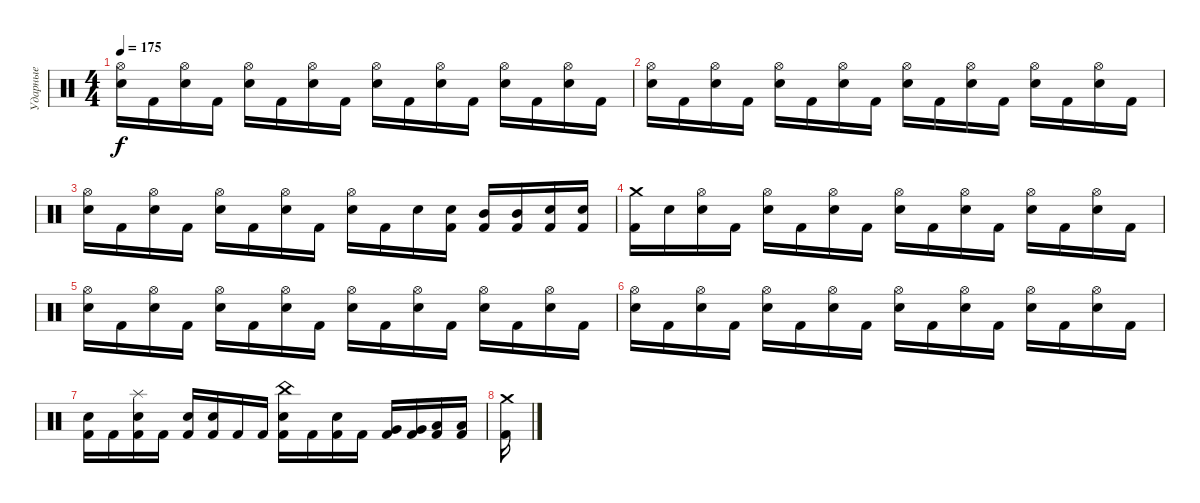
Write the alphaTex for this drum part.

\track ("Ударные" "Ударные") {instrument percussion}
\staff {score}
\articulation defaults
\ts (4 4)
\tempo 175
\clef neutral
\ks c
("Electric Snare (hit)" "Hi-Hat (open)").16{dy f} "Kick (hit) 2".16 ("Electric Snare (hit)" "Hi-Hat (open)").16 "Kick (hit) 2".16 ("Electric Snare (hit)" "Hi-Hat (open)").16 "Kick (hit) 2".16 ("Electric Snare (hit)" "Hi-Hat (open)").16 "Kick (hit) 2".16 ("Electric Snare (hit)" "Hi-Hat (open)").16 "Kick (hit) 2".16 ("Electric Snare (hit)" "Hi-Hat (open)").16 "Kick (hit) 2".16 ("Electric Snare (hit)" "Hi-Hat (open)").16 "Kick (hit) 2".16 ("Electric Snare (hit)" "Hi-Hat (open)").16 "Kick (hit) 2".16 |
("Electric Snare (hit)" "Hi-Hat (open)").16 "Kick (hit) 2".16 ("Electric Snare (hit)" "Hi-Hat (open)").16 "Kick (hit) 2".16 ("Electric Snare (hit)" "Hi-Hat (open)").16 "Kick (hit) 2".16 ("Electric Snare (hit)" "Hi-Hat (open)").16 "Kick (hit) 2".16 ("Electric Snare (hit)" "Hi-Hat (open)").16 "Kick (hit) 2".16 ("Electric Snare (hit)" "Hi-Hat (open)").16 "Kick (hit) 2".16 ("Electric Snare (hit)" "Hi-Hat (open)").16 "Kick (hit) 2".16 ("Electric Snare (hit)" "Hi-Hat (open)").16 "Kick (hit) 2".16 |
("Electric Snare (hit)" "Hi-Hat (open)").16 "Kick (hit) 2".16 ("Electric Snare (hit)" "Hi-Hat (open)").16 "Kick (hit) 2".16 ("Electric Snare (hit)" "Hi-Hat (open)").16 "Kick (hit) 2".16 ("Electric Snare (hit)" "Hi-Hat (open)").16 "Kick (hit) 2".16 ("Electric Snare (hit)" "Hi-Hat (open)").16 "Kick (hit) 2".16 "Electric Snare (hit)".16 ("Electric Snare (hit)" "Kick (hit) 2").16 ("Mid Tom (hit)" "Kick (hit) 2").16 ("Mid Tom (hit)" "Kick (hit) 2").16 ("Electric Snare (hit)" "Kick (hit) 2").16 ("Electric Snare (hit)" "Kick (hit) 2").16 |
("Crash medium (hit)" "Kick (hit) 2").16 "Snare (hit)".16 ("Electric Snare (hit)" "Hi-Hat (open)").16 "Kick (hit) 2".16 ("Electric Snare (hit)" "Hi-Hat (open)").16 "Kick (hit) 2".16 ("Electric Snare (hit)" "Hi-Hat (open)").16 "Kick (hit) 2".16 ("Electric Snare (hit)" "Hi-Hat (open)").16 "Kick (hit) 2".16 ("Electric Snare (hit)" "Hi-Hat (open)").16 "Kick (hit) 2".16 ("Electric Snare (hit)" "Hi-Hat (open)").16 "Kick (hit) 2".16 ("Electric Snare (hit)" "Hi-Hat (open)").16 "Kick (hit) 2".16 |
("Electric Snare (hit)" "Hi-Hat (open)").16 "Kick (hit) 2".16 ("Electric Snare (hit)" "Hi-Hat (open)").16 "Kick (hit) 2".16 ("Electric Snare (hit)" "Hi-Hat (open)").16 "Kick (hit) 2".16 ("Electric Snare (hit)" "Hi-Hat (open)").16 "Kick (hit) 2".16 ("Electric Snare (hit)" "Hi-Hat (open)").16 "Kick (hit) 2".16 ("Electric Snare (hit)" "Hi-Hat (open)").16 "Kick (hit) 2".16 ("Electric Snare (hit)" "Hi-Hat (open)").16 "Kick (hit) 2".16 ("Electric Snare (hit)" "Hi-Hat (open)").16 "Kick (hit) 2".16 |
("Electric Snare (hit)" "Hi-Hat (open)").16 "Kick (hit) 2".16 ("Electric Snare (hit)" "Hi-Hat (open)").16 "Kick (hit) 2".16 ("Electric Snare (hit)" "Hi-Hat (open)").16 "Kick (hit) 2".16 ("Electric Snare (hit)" "Hi-Hat (open)").16 "Kick (hit) 2".16 ("Electric Snare (hit)" "Hi-Hat (open)").16 "Kick (hit) 2".16 ("Electric Snare (hit)" "Hi-Hat (open)").16 "Kick (hit) 2".16 ("Electric Snare (hit)" "Hi-Hat (open)").16 "Kick (hit) 2".16 ("Electric Snare (hit)" "Hi-Hat (open)").16 "Kick (hit) 2".16 |
("Electric Snare (hit)" "Kick (hit) 2").16 "Kick (hit) 2".16 ("Electric Snare (hit)" "Splash (hit)" "Kick (hit) 2").16 "Kick (hit) 2".16 ("Electric Snare (hit)" "Kick (hit) 2").16 ("Electric Snare (hit)" "Kick (hit) 2").16 "Kick (hit) 2".16 "Kick (hit) 2".16 ("Electric Snare (hit)" "China (hit)" "Kick (hit) 2").16 "Kick (hit) 2".16 ("Electric Snare (hit)" "Kick (hit) 2").16 "Kick (hit) 2".16 ("Very Low Tom (hit)" "Kick (hit) 2").16 ("Very Low Tom (hit)" "Kick (hit) 2").16 ("Low Floor Tom (hit)" "Kick (hit) 2").16 ("Low Floor Tom (hit)" "Kick (hit) 2").16 |
("Crash medium (hit)" "Kick (hit) 2").16
